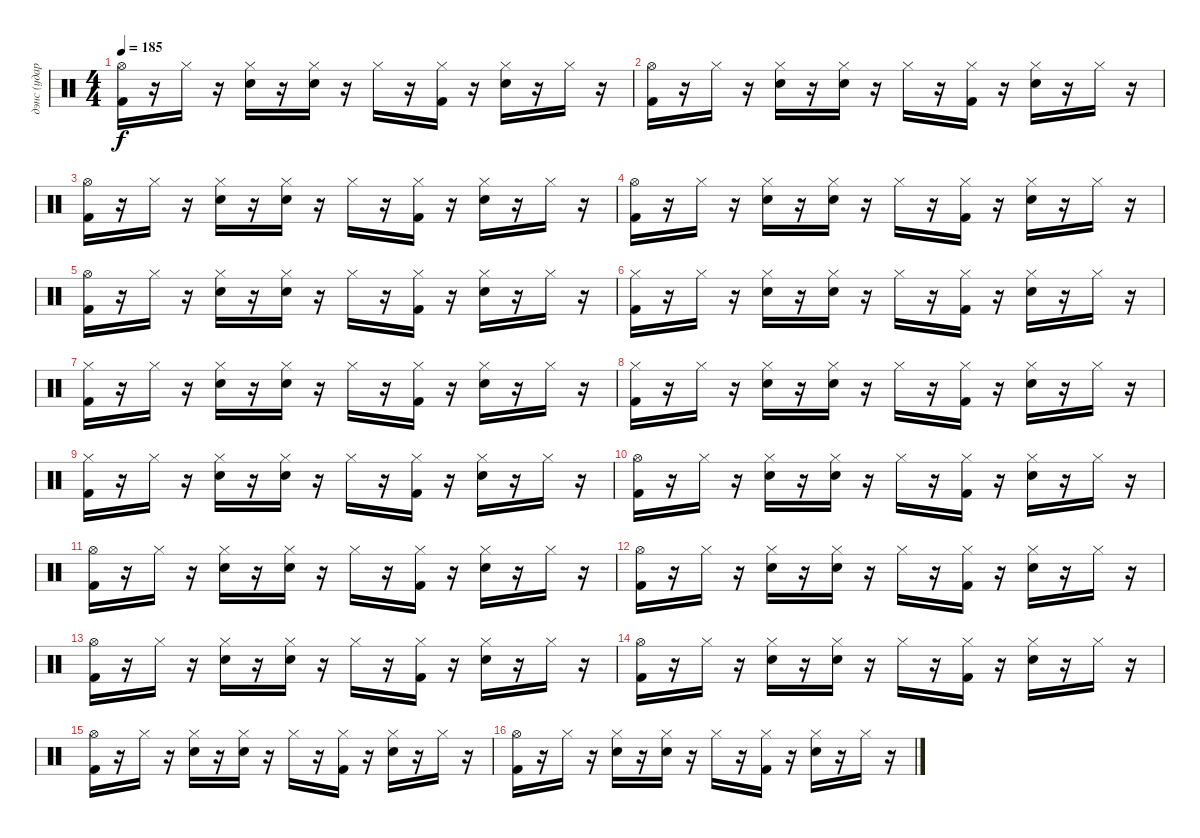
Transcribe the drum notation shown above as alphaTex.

\track ("дэнс (ударные)" "дэнс (удар") {instrument percussion}
\staff {score}
\articulation defaults
\ts (4 4)
\tempo 185
\clef neutral
\ks c
("Kick (hit) 2" "Hi-Hat (open)").16{dy f} r.16 "Hi-Hat (closed)".16 r.16 ("Snare (hit) 2" "Hi-Hat (closed)").16 r.16 ("Snare (hit) 2" "Hi-Hat (closed)").16 r.16 "Hi-Hat (closed)".16 r.16 ("Kick (hit) 2" "Hi-Hat (closed)").16 r.16 ("Snare (hit) 2" "Hi-Hat (closed)").16 r.16 "Hi-Hat (closed)".16 r.16 |
("Kick (hit) 2" "Hi-Hat (open)").16 r.16 "Hi-Hat (closed)".16 r.16 ("Snare (hit) 2" "Hi-Hat (closed)").16 r.16 ("Snare (hit) 2" "Hi-Hat (closed)").16 r.16 "Hi-Hat (closed)".16 r.16 ("Kick (hit) 2" "Hi-Hat (closed)").16 r.16 ("Snare (hit) 2" "Hi-Hat (closed)").16 r.16 "Hi-Hat (closed)".16 r.16 |
("Kick (hit) 2" "Hi-Hat (open)").16 r.16 "Hi-Hat (closed)".16 r.16 ("Snare (hit) 2" "Hi-Hat (closed)").16 r.16 ("Snare (hit) 2" "Hi-Hat (closed)").16 r.16 "Hi-Hat (closed)".16 r.16 ("Kick (hit) 2" "Hi-Hat (closed)").16 r.16 ("Snare (hit) 2" "Hi-Hat (closed)").16 r.16 "Hi-Hat (closed)".16 r.16 |
("Kick (hit) 2" "Hi-Hat (open)").16 r.16 "Hi-Hat (closed)".16 r.16 ("Snare (hit) 2" "Hi-Hat (closed)").16 r.16 ("Snare (hit) 2" "Hi-Hat (closed)").16 r.16 "Hi-Hat (closed)".16 r.16 ("Kick (hit) 2" "Hi-Hat (closed)").16 r.16 ("Snare (hit) 2" "Hi-Hat (closed)").16 r.16 "Hi-Hat (closed)".16 r.16 |
("Kick (hit) 2" "Hi-Hat (open)").16 r.16 "Hi-Hat (closed)".16 r.16 ("Snare (hit) 2" "Hi-Hat (closed)").16 r.16 ("Snare (hit) 2" "Hi-Hat (closed)").16 r.16 "Hi-Hat (closed)".16 r.16 ("Kick (hit) 2" "Hi-Hat (closed)").16 r.16 ("Snare (hit) 2" "Hi-Hat (closed)").16 r.16 "Hi-Hat (closed)".16 r.16 |
("Kick (hit) 2" "Hi-Hat (closed)").16 r.16 "Hi-Hat (closed)".16 r.16 ("Snare (hit) 2" "Hi-Hat (closed)").16 r.16 ("Snare (hit) 2" "Hi-Hat (closed)").16 r.16 "Hi-Hat (closed)".16 r.16 ("Kick (hit) 2" "Hi-Hat (closed)").16 r.16 ("Snare (hit) 2" "Hi-Hat (closed)").16 r.16 "Hi-Hat (closed)".16 r.16 |
("Kick (hit) 2" "Hi-Hat (closed)").16 r.16 "Hi-Hat (closed)".16 r.16 ("Snare (hit) 2" "Hi-Hat (closed)").16 r.16 ("Snare (hit) 2" "Hi-Hat (closed)").16 r.16 "Hi-Hat (closed)".16 r.16 ("Kick (hit) 2" "Hi-Hat (closed)").16 r.16 ("Snare (hit) 2" "Hi-Hat (closed)").16 r.16 "Hi-Hat (closed)".16 r.16 |
("Kick (hit) 2" "Hi-Hat (closed)").16 r.16 "Hi-Hat (closed)".16 r.16 ("Snare (hit) 2" "Hi-Hat (closed)").16 r.16 ("Snare (hit) 2" "Hi-Hat (closed)").16 r.16 "Hi-Hat (closed)".16 r.16 ("Kick (hit) 2" "Hi-Hat (closed)").16 r.16 ("Snare (hit) 2" "Hi-Hat (closed)").16 r.16 "Hi-Hat (closed)".16 r.16 |
("Kick (hit) 2" "Hi-Hat (closed)").16 r.16 "Hi-Hat (closed)".16 r.16 ("Snare (hit) 2" "Hi-Hat (closed)").16 r.16 ("Snare (hit) 2" "Hi-Hat (closed)").16 r.16 "Hi-Hat (closed)".16 r.16 ("Kick (hit) 2" "Hi-Hat (closed)").16 r.16 ("Snare (hit) 2" "Hi-Hat (closed)").16 r.16 "Hi-Hat (closed)".16 r.16 |
("Kick (hit) 2" "Hi-Hat (open)").16 r.16 "Hi-Hat (closed)".16 r.16 ("Snare (hit) 2" "Hi-Hat (closed)").16 r.16 ("Snare (hit) 2" "Hi-Hat (closed)").16 r.16 "Hi-Hat (closed)".16 r.16 ("Kick (hit) 2" "Hi-Hat (closed)").16 r.16 ("Snare (hit) 2" "Hi-Hat (closed)").16 r.16 "Hi-Hat (closed)".16 r.16 |
("Kick (hit) 2" "Hi-Hat (open)").16 r.16 "Hi-Hat (closed)".16 r.16 ("Snare (hit) 2" "Hi-Hat (closed)").16 r.16 ("Snare (hit) 2" "Hi-Hat (closed)").16 r.16 "Hi-Hat (closed)".16 r.16 ("Kick (hit) 2" "Hi-Hat (closed)").16 r.16 ("Snare (hit) 2" "Hi-Hat (closed)").16 r.16 "Hi-Hat (closed)".16 r.16 |
("Kick (hit) 2" "Hi-Hat (open)").16 r.16 "Hi-Hat (closed)".16 r.16 ("Snare (hit) 2" "Hi-Hat (closed)").16 r.16 ("Snare (hit) 2" "Hi-Hat (closed)").16 r.16 "Hi-Hat (closed)".16 r.16 ("Kick (hit) 2" "Hi-Hat (closed)").16 r.16 ("Snare (hit) 2" "Hi-Hat (closed)").16 r.16 "Hi-Hat (closed)".16 r.16 |
("Kick (hit) 2" "Hi-Hat (open)").16 r.16 "Hi-Hat (closed)".16 r.16 ("Snare (hit) 2" "Hi-Hat (closed)").16 r.16 ("Snare (hit) 2" "Hi-Hat (closed)").16 r.16 "Hi-Hat (closed)".16 r.16 ("Kick (hit) 2" "Hi-Hat (closed)").16 r.16 ("Snare (hit) 2" "Hi-Hat (closed)").16 r.16 "Hi-Hat (closed)".16 r.16 |
("Kick (hit) 2" "Hi-Hat (open)").16 r.16 "Hi-Hat (closed)".16 r.16 ("Snare (hit) 2" "Hi-Hat (closed)").16 r.16 ("Snare (hit) 2" "Hi-Hat (closed)").16 r.16 "Hi-Hat (closed)".16 r.16 ("Kick (hit) 2" "Hi-Hat (closed)").16 r.16 ("Snare (hit) 2" "Hi-Hat (closed)").16 r.16 "Hi-Hat (closed)".16 r.16 |
("Kick (hit) 2" "Hi-Hat (open)").16 r.16 "Hi-Hat (closed)".16 r.16 ("Snare (hit) 2" "Hi-Hat (closed)").16 r.16 ("Snare (hit) 2" "Hi-Hat (closed)").16 r.16 "Hi-Hat (closed)".16 r.16 ("Kick (hit) 2" "Hi-Hat (closed)").16 r.16 ("Snare (hit) 2" "Hi-Hat (closed)").16 r.16 "Hi-Hat (closed)".16 r.16 |
("Kick (hit) 2" "Hi-Hat (open)").16 r.16 "Hi-Hat (closed)".16 r.16 ("Snare (hit) 2" "Hi-Hat (closed)").16 r.16 ("Snare (hit) 2" "Hi-Hat (closed)").16 r.16 "Hi-Hat (closed)".16 r.16 ("Kick (hit) 2" "Hi-Hat (closed)").16 r.16 ("Snare (hit) 2" "Hi-Hat (closed)").16 r.16 "Hi-Hat (closed)".16 r.16
